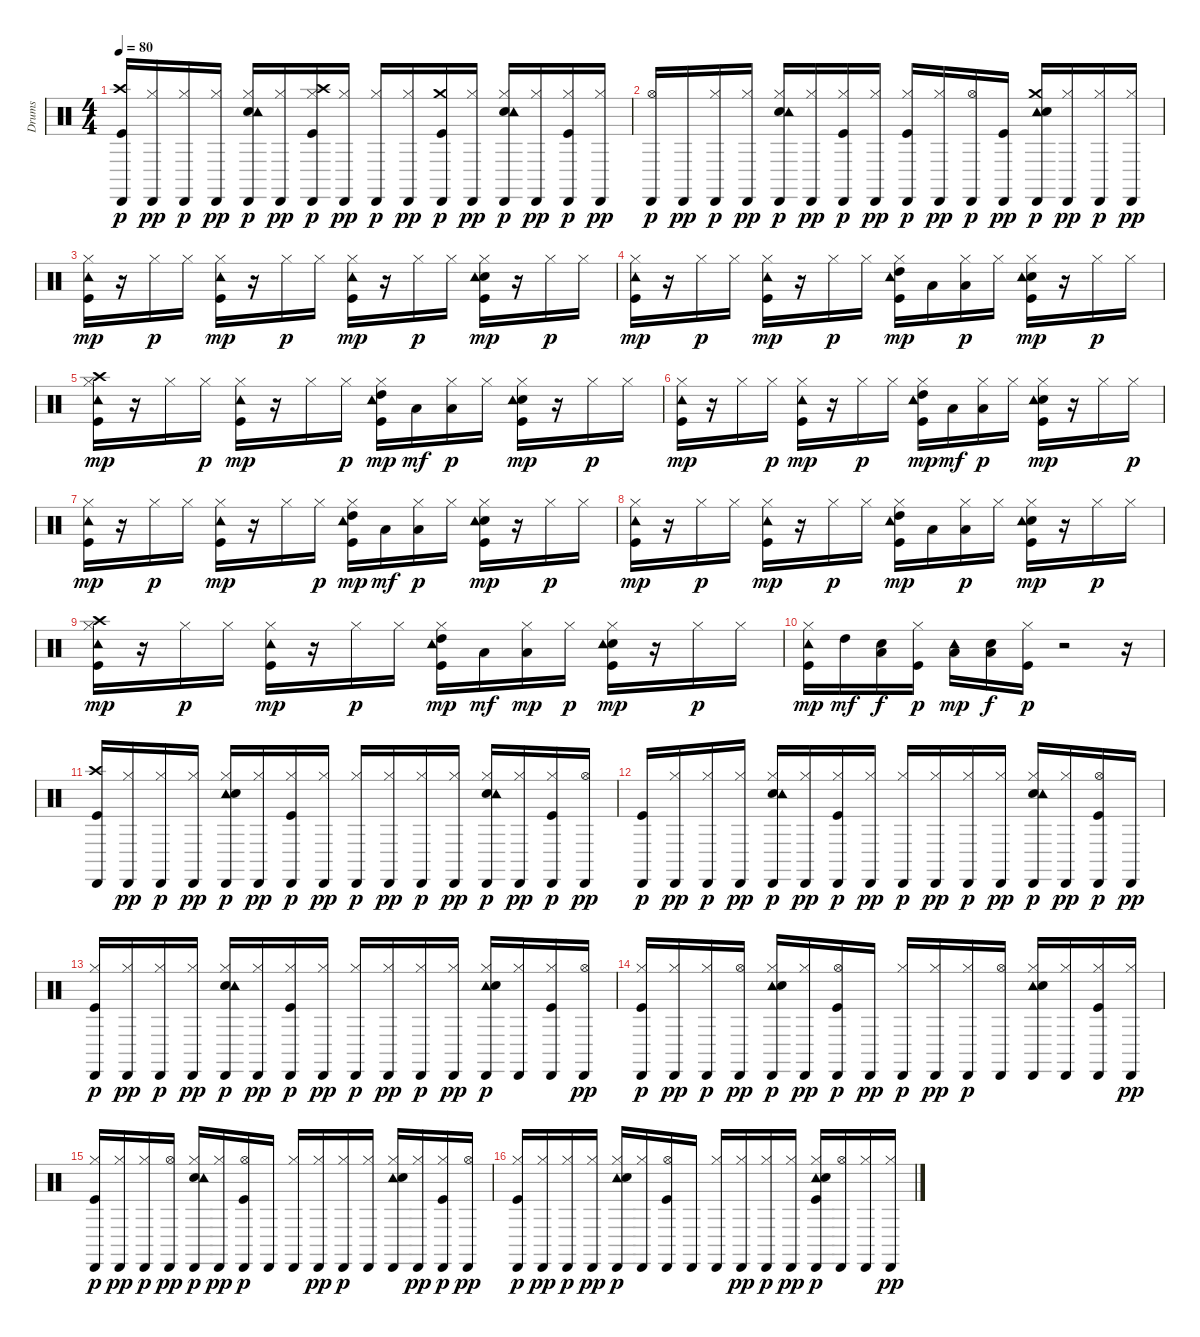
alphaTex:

\track ("Drums   " "Drums   ") {instrument percussion}
\staff {score}
\articulation defaults
\ts (4 4)
\tempo 80
\clef neutral
\ks c
("Kick (hit)" "Crash high (hit)" "Cabasa (hit)").16{dy p} ("Hi-Hat (closed)" "Cabasa (hit)").16{dy pp} ("Hi-Hat (closed)" "Cabasa (hit)").16{dy p} ("Hi-Hat (closed)" "Cabasa (hit)").16{dy pp} ("Snare (hit) 2" "Hi-Hat (closed)" "Tambourine (hit)" "Cabasa (hit)").16{dy p} ("Hi-Hat (closed)" "Cabasa (hit)").16{dy pp} ("Kick (hit)" "Hi-Hat (closed)" "Crash high (hit)" "Cabasa (hit)").16{dy p} ("Hi-Hat (closed)" "Cabasa (hit)").16{dy pp} ("Hi-Hat (closed)" "Cabasa (hit)").16{dy p} ("Hi-Hat (closed)" "Cabasa (hit)").16{dy pp} ("Kick (hit)" "Crash medium (hit)" "Cabasa (hit)").16{dy p} ("Hi-Hat (closed)" "Cabasa (hit)").16{dy pp} ("Snare (hit) 2" "Hi-Hat (closed)" "Tambourine (hit)" "Cabasa (hit)").16{dy p} ("Hi-Hat (closed)" "Cabasa (hit)").16{dy pp} ("Kick (hit)" "Hi-Hat (closed)" "Cabasa (hit)").16{dy p} ("Hi-Hat (closed)" "Cabasa (hit)").16{dy pp} |
("Hi-Hat (open)" "Cabasa (hit)").16{dy p} "Cabasa (hit)".16{dy pp} ("Hi-Hat (closed)" "Cabasa (hit)").16{dy p} ("Hi-Hat (closed)" "Cabasa (hit)").16{dy pp} ("Snare (hit) 2" "Hi-Hat (closed)" "Tambourine (hit)" "Cabasa (hit)").16{dy p} ("Hi-Hat (closed)" "Cabasa (hit)").16{dy pp} ("Kick (hit)" "Hi-Hat (closed)" "Cabasa (hit)").16{dy p} ("Hi-Hat (closed)" "Cabasa (hit)").16{dy pp} ("Kick (hit)" "Hi-Hat (closed)" "Cabasa (hit)").16{dy p} ("Hi-Hat (closed)" "Cabasa (hit)").16{dy pp} ("Hi-Hat (open)" "Cabasa (hit)").16{dy p} ("Kick (hit)" "Cabasa (hit)").16{dy pp} ("Tambourine (hit)" "Snare (hit) 2" "Crash medium (hit)" "Cabasa (hit)").16{dy p} ("Hi-Hat (closed)" "Cabasa (hit)").16{dy pp} ("Hi-Hat (closed)" "Cabasa (hit)").16{dy p} ("Hi-Hat (closed)" "Cabasa (hit)").16{dy pp} |
("Kick (hit)" "Hi-Hat (closed)" "Tambourine (hit)").16{dy mp} r.16 "Hi-Hat (closed)".16{dy p} "Hi-Hat (closed)".16 ("Kick (hit)" "Hi-Hat (closed)" "Tambourine (hit)").16{dy mp} r.16 "Hi-Hat (closed)".16{dy p} "Hi-Hat (closed)".16 ("Kick (hit)" "Hi-Hat (closed)" "Tambourine (hit)").16{dy mp} r.16 "Hi-Hat (closed)".16{dy p} "Hi-Hat (closed)".16 ("Kick (hit)" "Snare (hit) 2" "Hi-Hat (closed)" "Tambourine (hit)").16{dy mp} r.16 "Hi-Hat (closed)".16{dy p} "Hi-Hat (closed)".16 |
("Kick (hit)" "Hi-Hat (closed)" "Tambourine (hit)").16{dy mp} r.16 "Hi-Hat (closed)".16{dy p} "Hi-Hat (closed)".16 ("Kick (hit)" "Hi-Hat (closed)" "Tambourine (hit)").16{dy mp} r.16 "Hi-Hat (closed)".16{dy p} "Hi-Hat (closed)".16 ("Kick (hit)" "Hi-Hat (closed)" "High Tom (hit)" "Tambourine (hit)").16{dy mp} "Low Tom (hit)".16 ("Low Floor Tom (hit)" "Hi-Hat (closed)").16{dy p} "Hi-Hat (closed)".16 ("Kick (hit)" "Snare (hit) 2" "Hi-Hat (closed)" "Tambourine (hit)").16{dy mp} r.16 "Hi-Hat (closed)".16{dy p} "Hi-Hat (closed)".16 |
("Kick (hit)" "Hi-Hat (closed)" "Crash high (hit)" "Tambourine (hit)").16{dy mp} r.16 "Hi-Hat (closed)".16 "Hi-Hat (closed)".16{dy p} ("Kick (hit)" "Hi-Hat (closed)" "Tambourine (hit)").16{dy mp} r.16 "Hi-Hat (closed)".16 "Hi-Hat (closed)".16{dy p} ("Kick (hit)" "Hi-Hat (closed)" "High Tom (hit)" "Tambourine (hit)").16{dy mp} "Low Tom (hit)".16{dy mf} ("Low Floor Tom (hit)" "Hi-Hat (closed)").16{dy p} "Hi-Hat (closed)".16 ("Kick (hit)" "Snare (hit) 2" "Hi-Hat (closed)" "Tambourine (hit)").16{dy mp} r.16 "Hi-Hat (closed)".16{dy p} "Hi-Hat (closed)".16 |
("Kick (hit)" "Hi-Hat (closed)" "Tambourine (hit)").16{dy mp} r.16 "Hi-Hat (closed)".16 "Hi-Hat (closed)".16{dy p} ("Kick (hit)" "Hi-Hat (closed)" "Tambourine (hit)").16{dy mp} r.16 "Hi-Hat (closed)".16{dy p} "Hi-Hat (closed)".16 ("Kick (hit)" "Hi-Hat (closed)" "High Tom (hit)" "Tambourine (hit)").16{dy mp} "Low Tom (hit)".16{dy mf} ("Low Floor Tom (hit)" "Hi-Hat (closed)").16{dy p} "Hi-Hat (closed)".16 ("Kick (hit)" "Snare (hit) 2" "Hi-Hat (closed)" "Tambourine (hit)").16{dy mp} r.16 "Hi-Hat (closed)".16 "Hi-Hat (closed)".16{dy p} |
("Kick (hit)" "Hi-Hat (closed)" "Tambourine (hit)").16{dy mp} r.16 "Hi-Hat (closed)".16{dy p} "Hi-Hat (closed)".16 ("Kick (hit)" "Hi-Hat (closed)" "Tambourine (hit)").16{dy mp} r.16 "Hi-Hat (closed)".16 "Hi-Hat (closed)".16{dy p} ("Kick (hit)" "Hi-Hat (closed)" "High Tom (hit)" "Tambourine (hit)").16{dy mp} "Low Tom (hit)".16{dy mf} ("Low Floor Tom (hit)" "Hi-Hat (closed)").16{dy p} "Hi-Hat (closed)".16 ("Kick (hit)" "Snare (hit) 2" "Hi-Hat (closed)" "Tambourine (hit)").16{dy mp} r.16 "Hi-Hat (closed)".16{dy p} "Hi-Hat (closed)".16 |
("Kick (hit)" "Hi-Hat (closed)" "Tambourine (hit)").16{dy mp} r.16 "Hi-Hat (closed)".16{dy p} "Hi-Hat (closed)".16 ("Kick (hit)" "Hi-Hat (closed)" "Tambourine (hit)").16{dy mp} r.16 "Hi-Hat (closed)".16{dy p} "Hi-Hat (closed)".16 ("Kick (hit)" "Hi-Hat (closed)" "High Tom (hit)" "Tambourine (hit)").16{dy mp} "Low Tom (hit)".16 ("Low Floor Tom (hit)" "Hi-Hat (closed)").16{dy p} "Hi-Hat (closed)".16 ("Kick (hit)" "Snare (hit) 2" "Hi-Hat (closed)" "Tambourine (hit)").16{dy mp} r.16 "Hi-Hat (closed)".16{dy p} "Hi-Hat (closed)".16 |
("Kick (hit)" "Hi-Hat (closed)" "Crash high (hit)" "Tambourine (hit)").16{dy mp} r.16 "Hi-Hat (closed)".16{dy p} "Hi-Hat (closed)".16 ("Kick (hit)" "Hi-Hat (closed)" "Tambourine (hit)").16{dy mp} r.16 "Hi-Hat (closed)".16{dy p} "Hi-Hat (closed)".16 ("Kick (hit)" "Hi-Hat (closed)" "High Tom (hit)" "Tambourine (hit)").16{dy mp} "Low Tom (hit)".16{dy mf} ("Low Floor Tom (hit)" "Hi-Hat (closed)").16{dy mp} "Hi-Hat (closed)".16{dy p} ("Kick (hit)" "Snare (hit) 2" "Hi-Hat (closed)" "Tambourine (hit)").16{dy mp} r.16 "Hi-Hat (closed)".16{dy p} "Hi-Hat (closed)".16 |
("Kick (hit)" "Hi-Hat (closed)" "Tambourine (hit)").16{dy mp} "High Tom (hit)".16{dy mf} ("Snare (hit) 2" "Low Tom (hit)").16{dy f} ("Kick (hit)" "Hi-Hat (closed)").16{dy p} ("Low Tom (hit)" "Tambourine (hit)").16{dy mp} ("Snare (hit) 2" "Low Floor Tom (hit)").16{dy f} ("Kick (hit)" "Hi-Hat (closed)").16{dy p} r.2 r.16 |
("Kick (hit)" "Crash high (hit)" "Cabasa (hit)").16 ("Hi-Hat (closed)" "Cabasa (hit)").16{dy pp} ("Hi-Hat (closed)" "Cabasa (hit)").16{dy p} ("Hi-Hat (closed)" "Cabasa (hit)").16{dy pp} ("Tambourine (hit)" "Snare (hit) 2" "Hi-Hat (closed)" "Cabasa (hit)").16{dy p} ("Hi-Hat (closed)" "Cabasa (hit)").16{dy pp} ("Kick (hit)" "Hi-Hat (closed)" "Cabasa (hit)").16{dy p} ("Hi-Hat (closed)" "Cabasa (hit)").16{dy pp} ("Hi-Hat (closed)" "Cabasa (hit)").16{dy p} ("Hi-Hat (closed)" "Cabasa (hit)").16{dy pp} ("Hi-Hat (closed)" "Cabasa (hit)").16{dy p} ("Hi-Hat (closed)" "Cabasa (hit)").16{dy pp} ("Snare (hit) 2" "Hi-Hat (closed)" "Tambourine (hit)" "Cabasa (hit)").16{dy p} ("Hi-Hat (closed)" "Cabasa (hit)").16{dy pp} ("Kick (hit)" "Hi-Hat (closed)" "Cabasa (hit)").16{dy p} ("Hi-Hat (open)" "Cabasa (hit)").16{dy pp} |
("Kick (hit)" "Cabasa (hit)").16{dy p} ("Hi-Hat (closed)" "Cabasa (hit)").16{dy pp} ("Hi-Hat (closed)" "Cabasa (hit)").16{dy p} ("Hi-Hat (closed)" "Cabasa (hit)").16{dy pp} ("Snare (hit) 2" "Hi-Hat (closed)" "Tambourine (hit)" "Cabasa (hit)").16{dy p} ("Hi-Hat (closed)" "Cabasa (hit)").16{dy pp} ("Kick (hit)" "Hi-Hat (closed)" "Cabasa (hit)").16{dy p} ("Hi-Hat (closed)" "Cabasa (hit)").16{dy pp} ("Hi-Hat (closed)" "Cabasa (hit)").16{dy p} ("Hi-Hat (closed)" "Cabasa (hit)").16{dy pp} ("Hi-Hat (closed)" "Cabasa (hit)").16{dy p} ("Hi-Hat (closed)" "Cabasa (hit)").16{dy pp} ("Snare (hit) 2" "Hi-Hat (closed)" "Tambourine (hit)" "Cabasa (hit)").16{dy p} ("Hi-Hat (closed)" "Cabasa (hit)").16{dy pp} ("Kick (hit)" "Hi-Hat (open)" "Cabasa (hit)").16{dy p} "Cabasa (hit)".16{dy pp} |
("Kick (hit)" "Hi-Hat (closed)" "Cabasa (hit)").16{dy p} ("Hi-Hat (closed)" "Cabasa (hit)").16{dy pp} ("Hi-Hat (closed)" "Cabasa (hit)").16{dy p} ("Hi-Hat (closed)" "Cabasa (hit)").16{dy pp} ("Snare (hit) 2" "Hi-Hat (closed)" "Tambourine (hit)" "Cabasa (hit)").16{dy p} ("Hi-Hat (closed)" "Cabasa (hit)").16{dy pp} ("Kick (hit)" "Hi-Hat (closed)" "Cabasa (hit)").16{dy p} ("Hi-Hat (closed)" "Cabasa (hit)").16{dy pp} ("Hi-Hat (closed)" "Cabasa (hit)").16{dy p} ("Hi-Hat (closed)" "Cabasa (hit)").16{dy pp} ("Hi-Hat (closed)" "Cabasa (hit)").16{dy p} ("Hi-Hat (closed)" "Cabasa (hit)").16{dy pp} ("Tambourine (hit)" "Snare (hit) 2" "Hi-Hat (closed)" "Cabasa (hit)").16{dy p} ("Hi-Hat (closed)" "Cabasa (hit)").16 ("Kick (hit)" "Hi-Hat (closed)" "Cabasa (hit)").16 ("Hi-Hat (open)" "Cabasa (hit)").16{dy pp} |
("Kick (hit)" "Hi-Hat (closed)" "Cabasa (hit)").16{dy p} ("Hi-Hat (closed)" "Cabasa (hit)").16{dy pp} ("Hi-Hat (closed)" "Cabasa (hit)").16{dy p} ("Hi-Hat (open)" "Cabasa (hit)").16{dy pp} ("Tambourine (hit)" "Snare (hit) 2" "Hi-Hat (closed)" "Cabasa (hit)").16{dy p} ("Hi-Hat (closed)" "Cabasa (hit)").16{dy pp} ("Kick (hit)" "Hi-Hat (open)" "Cabasa (hit)").16{dy p} "Cabasa (hit)".16{dy pp} ("Hi-Hat (closed)" "Cabasa (hit)").16{dy p} ("Hi-Hat (closed)" "Cabasa (hit)").16{dy pp} ("Hi-Hat (closed)" "Cabasa (hit)").16{dy p} ("Hi-Hat (open)" "Cabasa (hit)").16 ("Tambourine (hit)" "Snare (hit) 2" "Hi-Hat (closed)" "Cabasa (hit)").16 ("Hi-Hat (closed)" "Cabasa (hit)").16 ("Kick (hit)" "Hi-Hat (closed)" "Cabasa (hit)").16 ("Hi-Hat (closed)" "Cabasa (hit)").16{dy pp} |
("Kick (hit)" "Hi-Hat (closed)" "Cabasa (hit)").16{dy p} ("Hi-Hat (closed)" "Cabasa (hit)").16{dy pp} ("Hi-Hat (closed)" "Cabasa (hit)").16{dy p} ("Hi-Hat (open)" "Cabasa (hit)").16{dy pp} ("Snare (hit) 2" "Hi-Hat (closed)" "Tambourine (hit)" "Cabasa (hit)").16{dy p} ("Hi-Hat (closed)" "Cabasa (hit)").16{dy pp} ("Kick (hit)" "Hi-Hat (open)" "Cabasa (hit)").16{dy p} "Cabasa (hit)".16 ("Hi-Hat (closed)" "Cabasa (hit)").16 ("Hi-Hat (closed)" "Cabasa (hit)").16{dy pp} ("Hi-Hat (closed)" "Cabasa (hit)").16{dy p} ("Hi-Hat (closed)" "Cabasa (hit)").16 ("Tambourine (hit)" "Snare (hit) 2" "Hi-Hat (closed)" "Cabasa (hit)").16 ("Hi-Hat (closed)" "Cabasa (hit)").16{dy pp} ("Kick (hit)" "Hi-Hat (closed)" "Cabasa (hit)").16{dy p} ("Hi-Hat (open)" "Cabasa (hit)").16{dy pp} |
("Kick (hit)" "Hi-Hat (closed)" "Cabasa (hit)").16{dy p} ("Hi-Hat (closed)" "Cabasa (hit)").16{dy pp} ("Hi-Hat (closed)" "Cabasa (hit)").16{dy p} ("Hi-Hat (closed)" "Cabasa (hit)").16{dy pp} ("Tambourine (hit)" "Snare (hit) 2" "Hi-Hat (closed)" "Cabasa (hit)").16{dy p} ("Hi-Hat (closed)" "Cabasa (hit)").16 ("Kick (hit)" "Hi-Hat (open)" "Cabasa (hit)").16 "Cabasa (hit)".16 ("Hi-Hat (closed)" "Cabasa (hit)").16 ("Hi-Hat (closed)" "Cabasa (hit)").16{dy pp} ("Hi-Hat (closed)" "Cabasa (hit)").16{dy p} ("Hi-Hat (closed)" "Cabasa (hit)").16{dy pp} ("Tambourine (hit)" "Kick (hit)" "Snare (hit) 2" "Hi-Hat (closed)" "Cabasa (hit)").16{dy p} ("Hi-Hat (open)" "Cabasa (hit)").16 ("Hi-Hat (closed)" "Cabasa (hit)").16 ("Hi-Hat (closed)" "Cabasa (hit)").16{dy pp}
